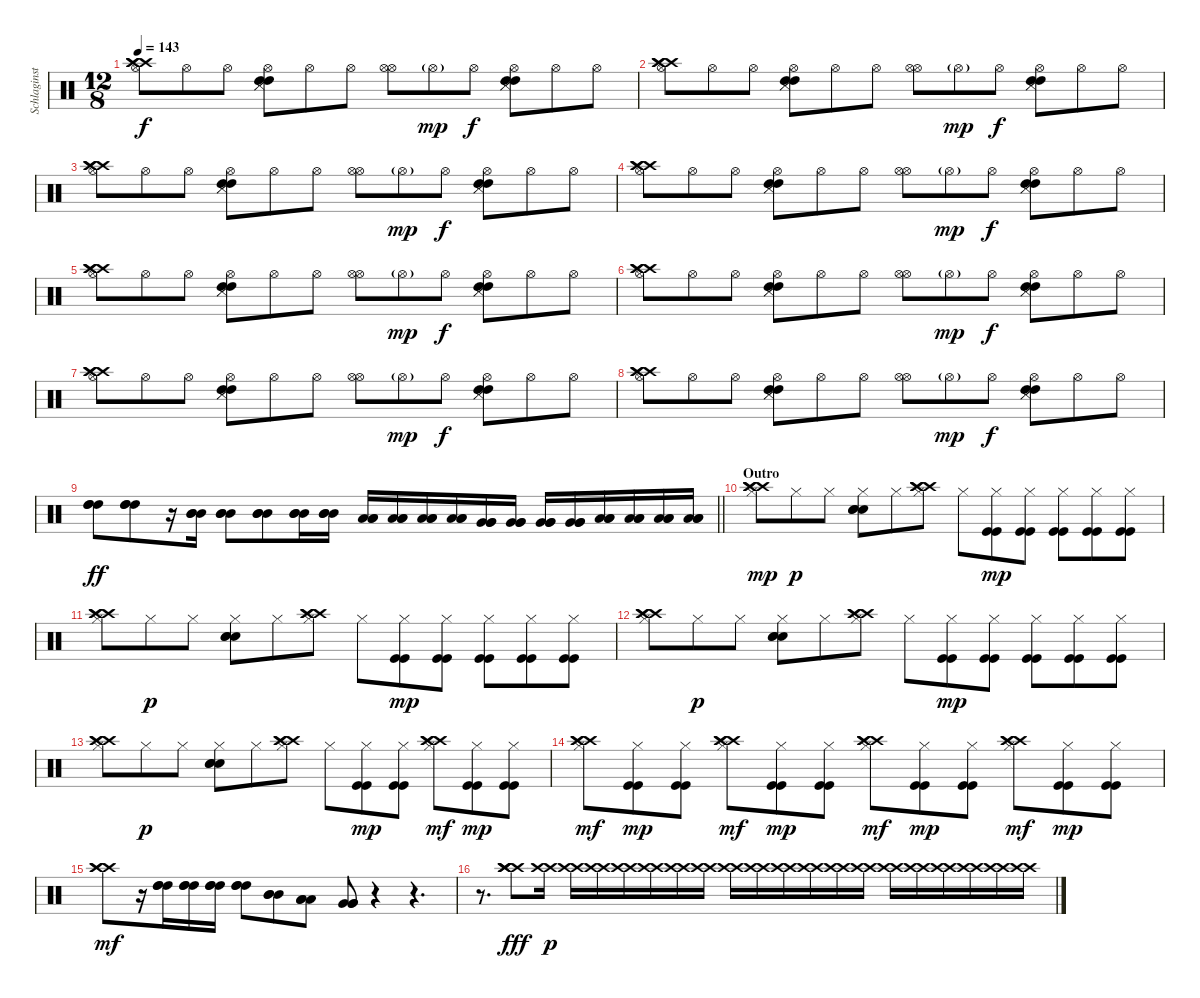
\track ("Schlaginstrumente - Auswahl" "Schlaginst") {instrument percussion}
\staff {score}
\articulation defaults
\ts (12 8)
\tempo 143
\clef neutral
\ks c
("Hi-Hat (open)" "Crash high (hit)" "Crash high (hit)" "Crash high (hit)").8{dy f} "Hi-Hat (open)".8 "Hi-Hat (open)".8 ("Hi-Hat (open)" "Snare (side stick) 3" "Snare (side stick) 3" "High Tom (hit)" "High Tom (hit)").8 "Hi-Hat (open)".8 "Hi-Hat (open)".8 ("Hi-Hat (open)" "Hi-Hat (open)").8 "Hi-Hat (open)"{g}.8{dy mp} "Hi-Hat (open)".8{dy f} ("Hi-Hat (open)" "Snare (side stick) 3" "Snare (side stick) 3" "High Tom (hit)" "High Tom (hit)").8 "Hi-Hat (open)".8 "Hi-Hat (open)".8 |
("Hi-Hat (open)" "Crash high (hit)" "Crash high (hit)" "Crash high (hit)").8 "Hi-Hat (open)".8 "Hi-Hat (open)".8 ("Hi-Hat (open)" "Snare (side stick) 3" "Snare (side stick) 3" "High Tom (hit)" "High Tom (hit)").8 "Hi-Hat (open)".8 "Hi-Hat (open)".8 ("Hi-Hat (open)" "Hi-Hat (open)").8 "Hi-Hat (open)"{g}.8{dy mp} "Hi-Hat (open)".8{dy f} ("Hi-Hat (open)" "Snare (side stick) 3" "Snare (side stick) 3" "High Tom (hit)" "High Tom (hit)").8 "Hi-Hat (open)".8 "Hi-Hat (open)".8 |
("Hi-Hat (open)" "Crash high (hit)" "Crash high (hit)" "Crash high (hit)").8 "Hi-Hat (open)".8 "Hi-Hat (open)".8 ("Hi-Hat (open)" "Snare (side stick) 3" "Snare (side stick) 3" "High Tom (hit)" "High Tom (hit)").8 "Hi-Hat (open)".8 "Hi-Hat (open)".8 ("Hi-Hat (open)" "Hi-Hat (open)").8 "Hi-Hat (open)"{g}.8{dy mp} "Hi-Hat (open)".8{dy f} ("Hi-Hat (open)" "Snare (side stick) 3" "Snare (side stick) 3" "High Tom (hit)" "High Tom (hit)").8 "Hi-Hat (open)".8 "Hi-Hat (open)".8 |
("Hi-Hat (open)" "Crash high (hit)" "Crash high (hit)" "Crash high (hit)").8 "Hi-Hat (open)".8 "Hi-Hat (open)".8 ("Hi-Hat (open)" "Snare (side stick) 3" "Snare (side stick) 3" "High Tom (hit)" "High Tom (hit)").8 "Hi-Hat (open)".8 "Hi-Hat (open)".8 ("Hi-Hat (open)" "Hi-Hat (open)").8 "Hi-Hat (open)"{g}.8{dy mp} "Hi-Hat (open)".8{dy f} ("Hi-Hat (open)" "Snare (side stick) 3" "Snare (side stick) 3" "High Tom (hit)" "High Tom (hit)").8 "Hi-Hat (open)".8 "Hi-Hat (open)".8 |
("Hi-Hat (open)" "Crash high (hit)" "Crash high (hit)" "Crash high (hit)").8 "Hi-Hat (open)".8 "Hi-Hat (open)".8 ("Hi-Hat (open)" "Snare (side stick) 3" "Snare (side stick) 3" "High Tom (hit)" "High Tom (hit)").8 "Hi-Hat (open)".8 "Hi-Hat (open)".8 ("Hi-Hat (open)" "Hi-Hat (open)").8 "Hi-Hat (open)"{g}.8{dy mp} "Hi-Hat (open)".8{dy f} ("Hi-Hat (open)" "Snare (side stick) 3" "Snare (side stick) 3" "High Tom (hit)" "High Tom (hit)").8 "Hi-Hat (open)".8 "Hi-Hat (open)".8 |
("Hi-Hat (open)" "Crash high (hit)" "Crash high (hit)" "Crash high (hit)").8 "Hi-Hat (open)".8 "Hi-Hat (open)".8 ("Hi-Hat (open)" "Snare (side stick) 3" "Snare (side stick) 3" "High Tom (hit)" "High Tom (hit)").8 "Hi-Hat (open)".8 "Hi-Hat (open)".8 ("Hi-Hat (open)" "Hi-Hat (open)").8 "Hi-Hat (open)"{g}.8{dy mp} "Hi-Hat (open)".8{dy f} ("Hi-Hat (open)" "Snare (side stick) 3" "Snare (side stick) 3" "High Tom (hit)" "High Tom (hit)").8 "Hi-Hat (open)".8 "Hi-Hat (open)".8 |
("Hi-Hat (open)" "Crash high (hit)" "Crash high (hit)" "Crash high (hit)").8 "Hi-Hat (open)".8 "Hi-Hat (open)".8 ("Hi-Hat (open)" "Snare (side stick) 3" "Snare (side stick) 3" "High Tom (hit)" "High Tom (hit)").8 "Hi-Hat (open)".8 "Hi-Hat (open)".8 ("Hi-Hat (open)" "Hi-Hat (open)").8 "Hi-Hat (open)"{g}.8{dy mp} "Hi-Hat (open)".8{dy f} ("Hi-Hat (open)" "Snare (side stick) 3" "Snare (side stick) 3" "High Tom (hit)" "High Tom (hit)").8 "Hi-Hat (open)".8 "Hi-Hat (open)".8 |
("Hi-Hat (open)" "Crash high (hit)" "Crash high (hit)" "Crash high (hit)").8 "Hi-Hat (open)".8 "Hi-Hat (open)".8 ("Hi-Hat (open)" "Snare (side stick) 3" "Snare (side stick) 3" "High Tom (hit)" "High Tom (hit)").8 "Hi-Hat (open)".8 "Hi-Hat (open)".8 ("Hi-Hat (open)" "Hi-Hat (open)").8 "Hi-Hat (open)"{g}.8{dy mp} "Hi-Hat (open)".8{dy f} ("Hi-Hat (open)" "Snare (side stick) 3" "Snare (side stick) 3" "High Tom (hit)" "High Tom (hit)").8 "Hi-Hat (open)".8 "Hi-Hat (open)".8 |
\barLineRight lightlight
("High Tom (hit)" "High Tom (hit)" "High Tom (hit)").8{dy ff} ("High Tom (hit)" "High Tom (hit)" "High Tom (hit)").8 r.16 ("Mid Tom (hit)" "Mid Tom (hit)" "Mid Tom (hit)").16 ("Mid Tom (hit)" "Mid Tom (hit)" "Mid Tom (hit)").8 ("Mid Tom (hit)" "Mid Tom (hit)" "Mid Tom (hit)").8 ("Mid Tom (hit)" "Mid Tom (hit)" "Mid Tom (hit)").16 ("Mid Tom (hit)" "Mid Tom (hit)" "Mid Tom (hit)").16 ("Low Tom (hit)" "Low Tom (hit)" "Low Tom (hit)").16 ("Low Tom (hit)" "Low Tom (hit)" "Low Tom (hit)").16 ("Low Tom (hit)" "Low Tom (hit)" "Low Tom (hit)").16 ("Low Tom (hit)" "Low Tom (hit)" "Low Tom (hit)").16 ("Very Low Tom (hit)" "Very Low Tom (hit)" "Very Low Tom (hit)").16 ("Very Low Tom (hit)" "Very Low Tom (hit)" "Very Low Tom (hit)").16 ("Very Low Tom (hit)" "Very Low Tom (hit)" "Very Low Tom (hit)").16 ("Very Low Tom (hit)" "Very Low Tom (hit)" "Very Low Tom (hit)").16 ("Low Floor Tom (hit)" "Low Floor Tom (hit)" "Low Floor Tom (hit)").16 ("Low Floor Tom (hit)" "Low Floor Tom (hit)" "Low Floor Tom (hit)").16 ("Low Floor Tom (hit)" "Low Floor Tom (hit)" "Low Floor Tom (hit)").16 ("Low Floor Tom (hit)" "Low Floor Tom (hit)" "Low Floor Tom (hit)").16 |
\section ("" "Outro")
("Hi-Hat (closed)" "Crash high (hit)" "Crash high (hit)" "Crash high (hit)").8{dy mp} "Hi-Hat (closed)".8{dy p} "Hi-Hat (closed)".8 ("Hi-Hat (closed)" "Snare (hit) 2" "Snare (hit) 2" "Metronome (bell)").8 "Hi-Hat (closed)".8 ("Hi-Hat (closed)" "Crash high (hit)" "Crash high (hit)" "Crash high (hit)").8 "Hi-Hat (closed)".8 ("Hi-Hat (closed)" "Kick (hit)" "Kick (hit)").8{dy mp} ("Hi-Hat (closed)" "Kick (hit)" "Kick (hit)").8 ("Hi-Hat (closed)" "Kick (hit)" "Kick (hit)").8 ("Hi-Hat (closed)" "Kick (hit)" "Kick (hit)").8 ("Hi-Hat (closed)" "Kick (hit)" "Kick (hit)").8 |
("Hi-Hat (closed)" "Crash high (hit)" "Crash high (hit)" "Crash high (hit)").8 "Hi-Hat (closed)".8{dy p} "Hi-Hat (closed)".8 ("Hi-Hat (closed)" "Snare (hit) 2" "Snare (hit) 2" "Metronome (bell)").8 "Hi-Hat (closed)".8 ("Hi-Hat (closed)" "Crash high (hit)" "Crash high (hit)" "Crash high (hit)").8 "Hi-Hat (closed)".8 ("Hi-Hat (closed)" "Kick (hit)" "Kick (hit)").8{dy mp} ("Hi-Hat (closed)" "Kick (hit)" "Kick (hit)").8 ("Hi-Hat (closed)" "Kick (hit)" "Kick (hit)").8 ("Hi-Hat (closed)" "Kick (hit)" "Kick (hit)").8 ("Hi-Hat (closed)" "Kick (hit)" "Kick (hit)").8 |
("Hi-Hat (closed)" "Crash high (hit)" "Crash high (hit)" "Crash high (hit)").8 "Hi-Hat (closed)".8{dy p} "Hi-Hat (closed)".8 ("Hi-Hat (closed)" "Snare (hit) 2" "Snare (hit) 2" "Metronome (bell)").8 "Hi-Hat (closed)".8 ("Hi-Hat (closed)" "Crash high (hit)" "Crash high (hit)" "Crash high (hit)").8 "Hi-Hat (closed)".8 ("Hi-Hat (closed)" "Kick (hit)" "Kick (hit)").8{dy mp} ("Hi-Hat (closed)" "Kick (hit)" "Kick (hit)").8 ("Hi-Hat (closed)" "Kick (hit)" "Kick (hit)").8 ("Hi-Hat (closed)" "Kick (hit)" "Kick (hit)").8 ("Hi-Hat (closed)" "Kick (hit)" "Kick (hit)").8 |
("Hi-Hat (closed)" "Crash high (hit)" "Crash high (hit)" "Crash high (hit)").8 "Hi-Hat (closed)".8{dy p} "Hi-Hat (closed)".8 ("Hi-Hat (closed)" "Snare (hit) 2" "Snare (hit) 2" "Metronome (bell)").8 "Hi-Hat (closed)".8 ("Hi-Hat (closed)" "Crash high (hit)" "Crash high (hit)" "Crash high (hit)").8 "Hi-Hat (closed)".8 ("Hi-Hat (closed)" "Kick (hit)" "Kick (hit)").8{dy mp} ("Hi-Hat (closed)" "Kick (hit)" "Kick (hit)").8 ("Hi-Hat (closed)" "Crash high (hit)" "Crash high (hit)" "Crash high (hit)").8{dy mf} ("Hi-Hat (closed)" "Kick (hit)" "Kick (hit)").8{dy mp} ("Hi-Hat (closed)" "Kick (hit)" "Kick (hit)").8 |
("Hi-Hat (closed)" "Crash high (hit)" "Crash high (hit)" "Crash high (hit)").8{dy mf} ("Hi-Hat (closed)" "Kick (hit)" "Kick (hit)").8{dy mp} ("Hi-Hat (closed)" "Kick (hit)" "Kick (hit)").8 ("Hi-Hat (closed)" "Crash high (hit)" "Crash high (hit)" "Crash high (hit)").8{dy mf} ("Hi-Hat (closed)" "Kick (hit)" "Kick (hit)").8{dy mp} ("Hi-Hat (closed)" "Kick (hit)" "Kick (hit)").8 ("Hi-Hat (closed)" "Crash high (hit)" "Crash high (hit)" "Crash high (hit)").8{dy mf} ("Hi-Hat (closed)" "Kick (hit)" "Kick (hit)").8{dy mp} ("Hi-Hat (closed)" "Kick (hit)" "Kick (hit)").8 ("Hi-Hat (closed)" "Crash high (hit)" "Crash high (hit)" "Crash high (hit)").8{dy mf} ("Hi-Hat (closed)" "Kick (hit)" "Kick (hit)").8{dy mp} ("Hi-Hat (closed)" "Kick (hit)" "Kick (hit)").8 |
("Crash high (hit)" "Crash high (hit)" "Crash high (hit)").8{dy mf} r.16 ("High Tom (hit)" "High Tom (hit)" "High Tom (hit)").16 ("High Tom (hit)" "High Tom (hit)" "High Tom (hit)").16 ("High Tom (hit)" "High Tom (hit)" "High Tom (hit)").16 ("High Tom (hit)" "High Tom (hit)" "High Tom (hit)").8 ("Mid Tom (hit)" "Mid Tom (hit)" "Mid Tom (hit)").8 ("Low Tom (hit)" "Low Tom (hit)" "Low Tom (hit)").8 ("Very Low Tom (hit)" "Very Low Tom (hit)" "Very Low Tom (hit)").8 r.4 r.4{d} |
r.8{d} ("Crash high (hit)" "Crash high (hit)" "Crash high (hit)" "Crash high (hit)").8{dy fff} ("Crash high (hit)" "Crash high (hit)").16{dy p} ("Crash high (hit)" "Crash high (hit)").16 ("Crash high (hit)" "Crash high (hit)").16 ("Crash high (hit)" "Crash high (hit)").16 ("Crash high (hit)" "Crash high (hit)").16 ("Crash high (hit)" "Crash high (hit)").16 ("Crash high (hit)" "Crash high (hit)").16 ("Crash high (hit)" "Crash high (hit)").16 ("Crash high (hit)" "Crash high (hit)").16 ("Crash high (hit)" "Crash high (hit)").16 ("Crash high (hit)" "Crash high (hit)").16 ("Crash high (hit)" "Crash high (hit)").16 ("Crash high (hit)" "Crash high (hit)").16 ("Crash high (hit)" "Crash high (hit)").16 ("Crash high (hit)" "Crash high (hit)").16 ("Crash high (hit)" "Crash high (hit)").16 ("Crash high (hit)" "Crash high (hit)").16 ("Crash high (hit)" "Crash high (hit)").16 ("Crash high (hit)" "Crash high (hit)").16
